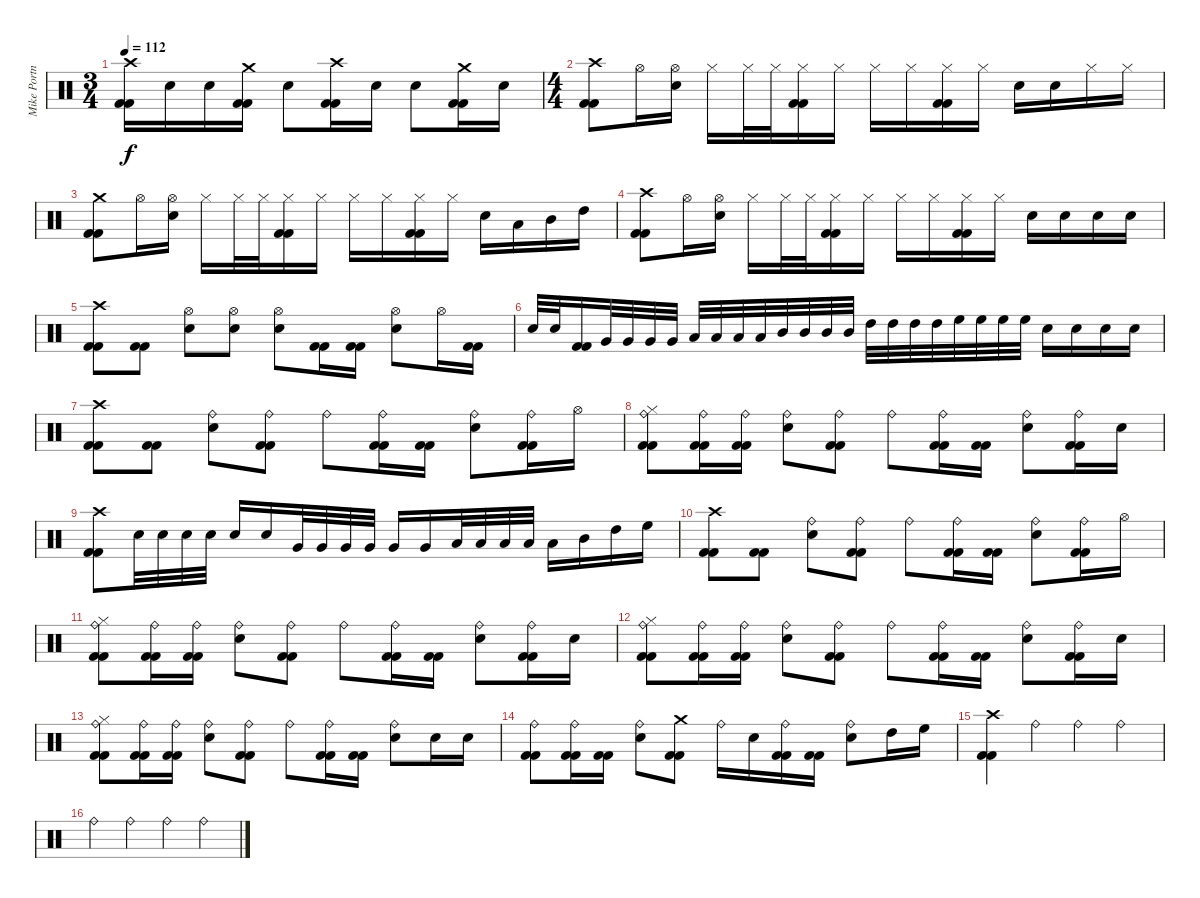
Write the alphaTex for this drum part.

\track ("Mike Portnoy - Drum" "Mike Portn") {instrument percussion}
\staff {score}
\articulation defaults
\ts (3 4)
\tempo 112
\clef neutral
\ks c
("Crash high (hit)" "Kick (hit) 2" "Kick (hit) 2").16{dy f} "Snare (hit) 2".16 "Snare (hit) 2".16 ("Crash medium (hit)" "Kick (hit) 2" "Kick (hit) 2").16 "Snare (hit) 2".8 ("Crash high (hit)" "Kick (hit) 2" "Kick (hit) 2").16 "Snare (hit) 2".16 "Snare (hit) 2".8 ("Crash medium (hit)" "Kick (hit) 2" "Kick (hit) 2").16 "Snare (hit) 2".16 |
\ts (4 4)
("Crash high (hit)" "Kick (hit) 2" "Kick (hit) 2").8 "Hi-Hat (open)".16 ("Hi-Hat (open)" "Snare (hit) 2").16 "Hi-Hat (closed)".16 "Hi-Hat (closed)".32 "Hi-Hat (closed)".32 ("Hi-Hat (closed)" "Kick (hit) 2" "Kick (hit) 2").16 "Hi-Hat (closed)".16 "Hi-Hat (closed)".16 "Hi-Hat (closed)".16 ("Hi-Hat (closed)" "Kick (hit) 2" "Kick (hit) 2").16 "Hi-Hat (closed)".16 "Snare (hit) 2".16 "Snare (hit) 2".16 "Hi-Hat (closed)".16 "Hi-Hat (closed)".16 |
("Crash medium (hit)" "Kick (hit) 2" "Kick (hit) 2").8 "Hi-Hat (open)".16 ("Hi-Hat (open)" "Snare (hit) 2").16 "Hi-Hat (closed)".16 "Hi-Hat (closed)".32 "Hi-Hat (closed)".32 ("Hi-Hat (closed)" "Kick (hit) 2" "Kick (hit) 2").16 "Hi-Hat (closed)".16 "Hi-Hat (closed)".16 "Hi-Hat (closed)".16 ("Hi-Hat (closed)" "Kick (hit) 2" "Kick (hit) 2").16 "Hi-Hat (closed)".16 "Snare (hit) 2".16 "Low Tom (hit)".16 "Mid Tom (hit)".16 "High Tom (hit)".16 |
("Crash high (hit)" "Kick (hit) 2" "Kick (hit) 2").8 "Hi-Hat (open)".16 ("Hi-Hat (open)" "Snare (hit) 2").16 "Hi-Hat (closed)".16 "Hi-Hat (closed)".32 "Hi-Hat (closed)".32 ("Hi-Hat (closed)" "Kick (hit) 2" "Kick (hit) 2").16 "Hi-Hat (closed)".16 "Hi-Hat (closed)".16 "Hi-Hat (closed)".16 ("Hi-Hat (closed)" "Kick (hit) 2" "Kick (hit) 2").16 "Hi-Hat (closed)".16 "Snare (hit) 2".16 "Snare (hit) 2".16 "Snare (hit) 2".16 "Snare (hit) 2".16 |
("Crash high (hit)" "Kick (hit) 2" "Kick (hit) 2").8 ("Kick (hit) 2" "Kick (hit) 2").8 ("Hi-Hat (open)" "Snare (hit) 2").8 ("Hi-Hat (open)" "Snare (hit) 2").8 ("Hi-Hat (open)" "Snare (hit) 2").8 ("Kick (hit) 2" "Kick (hit) 2").16 ("Kick (hit) 2" "Kick (hit) 2").16 ("Hi-Hat (open)" "Snare (hit) 2").8 "Hi-Hat (open)".16 ("Kick (hit) 2" "Kick (hit) 2").16 |
"Snare (hit) 2".32 "Snare (hit) 2".32 ("Kick (hit) 2" "Kick (hit) 2").16 "Very Low Tom (hit)".32 "Very Low Tom (hit)".32 "Very Low Tom (hit)".32 "Very Low Tom (hit)".32 "Low Tom (hit)".32 "Low Tom (hit)".32 "Low Tom (hit)".32 "Low Tom (hit)".32 "Mid Tom (hit)".32 "Mid Tom (hit)".32 "Mid Tom (hit)".32 "Mid Tom (hit)".32 "High Tom (hit)".32 "High Tom (hit)".32 "High Tom (hit)".32 "High Tom (hit)".32 "High Floor Tom (hit)".32 "High Floor Tom (hit)".32 "High Floor Tom (hit)".32 "High Floor Tom (hit)".32 "Snare (hit) 2".16 "Snare (hit) 2".16 "Snare (hit) 2".16 "Snare (hit) 2".16 |
("Crash high (hit)" "Kick (hit) 2" "Kick (hit) 2").8 ("Kick (hit) 2" "Kick (hit) 2").8 ("Ride (bell)" "Snare (hit) 2").8 ("Ride (bell)" "Kick (hit) 2" "Kick (hit) 2").8 "Ride (bell)".8 ("Ride (bell)" "Kick (hit) 2" "Kick (hit) 2").16 ("Kick (hit) 2" "Kick (hit) 2").16 ("Ride (bell)" "Snare (hit) 2").8 ("Ride (bell)" "Kick (hit) 2" "Kick (hit) 2").16 "Hi-Hat (open)".16 |
("Ride (bell)" "Hi-Hat (closed)" "Kick (hit) 2" "Kick (hit) 2").8 ("Ride (bell)" "Kick (hit) 2" "Kick (hit) 2").16 ("Ride (bell)" "Kick (hit) 2" "Kick (hit) 2").16 ("Ride (bell)" "Snare (hit) 2").8 ("Ride (bell)" "Kick (hit) 2" "Kick (hit) 2").8 "Ride (bell)".8 ("Ride (bell)" "Kick (hit) 2" "Kick (hit) 2").16 ("Kick (hit) 2" "Kick (hit) 2").16 ("Ride (bell)" "Snare (hit) 2").8 ("Ride (bell)" "Kick (hit) 2" "Kick (hit) 2").16 "Snare (hit) 2".16 |
("Crash high (hit)" "Kick (hit) 2" "Kick (hit) 2").8 "Snare (hit) 2".32 "Snare (hit) 2".32 "Snare (hit) 2".32 "Snare (hit) 2".32 "Snare (hit) 2".16 "Snare (hit) 2".16 "Very Low Tom (hit)".32 "Very Low Tom (hit)".32 "Very Low Tom (hit)".32 "Very Low Tom (hit)".32 "Very Low Tom (hit)".16 "Very Low Tom (hit)".16 "Low Tom (hit)".32 "Low Tom (hit)".32 "Low Tom (hit)".32 "Low Tom (hit)".32 "Low Tom (hit)".16 "Mid Tom (hit)".16 "High Tom (hit)".16 "High Floor Tom (hit)".16 |
("Crash high (hit)" "Kick (hit) 2" "Kick (hit) 2").8 ("Kick (hit) 2" "Kick (hit) 2").8 ("Ride (bell)" "Snare (hit) 2").8 ("Ride (bell)" "Kick (hit) 2" "Kick (hit) 2").8 "Ride (bell)".8 ("Ride (bell)" "Kick (hit) 2" "Kick (hit) 2").16 ("Kick (hit) 2" "Kick (hit) 2").16 ("Ride (bell)" "Snare (hit) 2").8 ("Ride (bell)" "Kick (hit) 2" "Kick (hit) 2").16 "Hi-Hat (open)".16 |
("Ride (bell)" "Hi-Hat (closed)" "Kick (hit) 2" "Kick (hit) 2").8 ("Ride (bell)" "Kick (hit) 2" "Kick (hit) 2").16 ("Ride (bell)" "Kick (hit) 2" "Kick (hit) 2").16 ("Ride (bell)" "Snare (hit) 2").8 ("Ride (bell)" "Kick (hit) 2" "Kick (hit) 2").8 "Ride (bell)".8 ("Ride (bell)" "Kick (hit) 2" "Kick (hit) 2").16 ("Kick (hit) 2" "Kick (hit) 2").16 ("Ride (bell)" "Snare (hit) 2").8 ("Ride (bell)" "Kick (hit) 2" "Kick (hit) 2").16 "Snare (hit) 2".16 |
("Ride (bell)" "Hi-Hat (closed)" "Kick (hit) 2" "Kick (hit) 2").8 ("Ride (bell)" "Kick (hit) 2" "Kick (hit) 2").16 ("Ride (bell)" "Kick (hit) 2" "Kick (hit) 2").16 ("Ride (bell)" "Snare (hit) 2").8 ("Ride (bell)" "Kick (hit) 2" "Kick (hit) 2").8 "Ride (bell)".8 ("Ride (bell)" "Kick (hit) 2" "Kick (hit) 2").16 ("Kick (hit) 2" "Kick (hit) 2").16 ("Ride (bell)" "Snare (hit) 2").8 ("Ride (bell)" "Kick (hit) 2" "Kick (hit) 2").16 "Snare (hit) 2".16 |
("Ride (bell)" "Hi-Hat (closed)" "Kick (hit) 2" "Kick (hit) 2").8 ("Ride (bell)" "Kick (hit) 2" "Kick (hit) 2").16 ("Ride (bell)" "Kick (hit) 2" "Kick (hit) 2").16 ("Ride (bell)" "Snare (hit) 2").8 ("Ride (bell)" "Kick (hit) 2" "Kick (hit) 2").8 "Ride (bell)".8 ("Ride (bell)" "Kick (hit) 2" "Kick (hit) 2").16 ("Kick (hit) 2" "Kick (hit) 2").16 ("Ride (bell)" "Snare (hit) 2").8 "Snare (hit) 2".16 "Snare (hit) 2".16 |
("Ride (bell)" "Kick (hit) 2" "Kick (hit) 2").8 ("Ride (bell)" "Kick (hit) 2" "Kick (hit) 2").16 ("Kick (hit) 2" "Kick (hit) 2").16 ("Ride (bell)" "Snare (hit) 2").8 ("Crash medium (hit)" "Kick (hit) 2" "Kick (hit) 2").8 "Ride (bell)".16 "Snare (hit) 2".16 ("Ride (bell)" "Kick (hit) 2" "Kick (hit) 2").16 ("Kick (hit) 2" "Kick (hit) 2").16 ("Ride (bell)" "Snare (hit) 2").8 "High Tom (hit)".16 "High Floor Tom (hit)".16 |
("Crash high (hit)" "Kick (hit) 2" "Kick (hit) 2").4 "Ride (bell)".4 "Ride (bell)".4 "Ride (bell)".4 |
"Ride (bell)".4 "Ride (bell)".4 "Ride (bell)".4 "Ride (bell)".4
